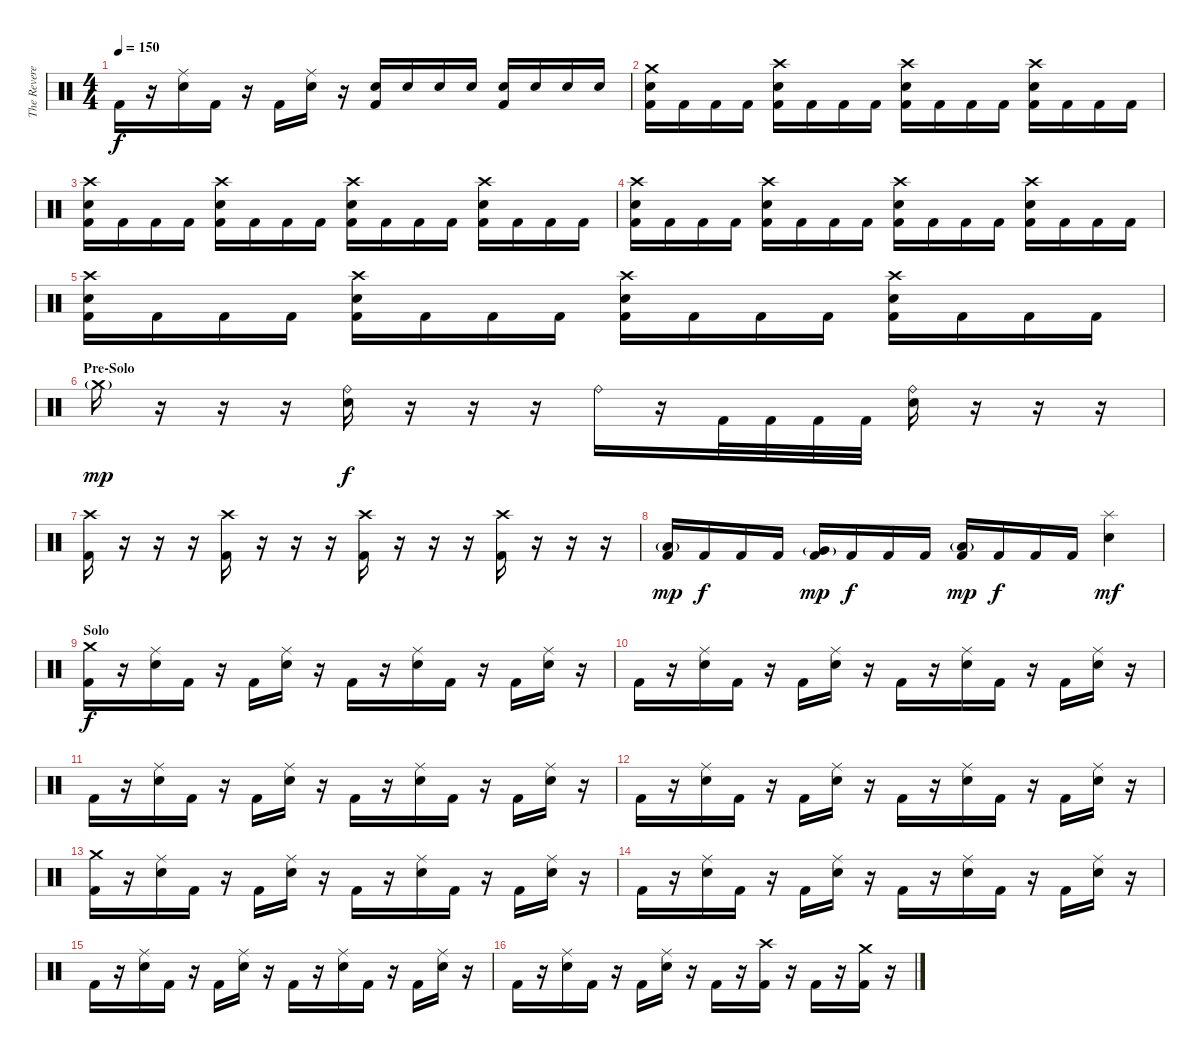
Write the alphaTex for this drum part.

\track ("The Reverend" "The Revere") {instrument percussion}
\staff {score}
\articulation defaults
\ts (4 4)
\tempo 150
\clef neutral
\ks c "Kick (hit) 2".16{dy f}
r.16 ("Ride (middle)" "Electric Snare (hit)").16 "Kick (hit) 2".16 r.16 "Kick (hit) 2".16 ("Ride (middle)" "Electric Snare (hit)").16 r.16 ("Electric Snare (hit)" "Kick (hit) 2").16 "Electric Snare (hit)".16 "Electric Snare (hit)".16 "Electric Snare (hit)".16 ("Electric Snare (hit)" "Kick (hit) 2").16 "Electric Snare (hit)".16 "Electric Snare (hit)".16 "Electric Snare (hit)".16 |
("Crash medium (hit)" "Electric Snare (hit)" "Kick (hit) 2").16 "Kick (hit) 2".16 "Kick (hit) 2".16 "Kick (hit) 2".16 ("Crash high (hit)" "Electric Snare (hit)" "Kick (hit) 2").16 "Kick (hit) 2".16 "Kick (hit) 2".16 "Kick (hit) 2".16 ("Crash high (hit)" "Electric Snare (hit)" "Kick (hit) 2").16 "Kick (hit) 2".16 "Kick (hit) 2".16 "Kick (hit) 2".16 ("Crash high (hit)" "Electric Snare (hit)" "Kick (hit) 2").16 "Kick (hit) 2".16 "Kick (hit) 2".16 "Kick (hit) 2".16 |
("Crash high (hit)" "Electric Snare (hit)" "Kick (hit) 2").16 "Kick (hit) 2".16 "Kick (hit) 2".16 "Kick (hit) 2".16 ("Crash high (hit)" "Electric Snare (hit)" "Kick (hit) 2").16 "Kick (hit) 2".16 "Kick (hit) 2".16 "Kick (hit) 2".16 ("Crash high (hit)" "Electric Snare (hit)" "Kick (hit) 2").16 "Kick (hit) 2".16 "Kick (hit) 2".16 "Kick (hit) 2".16 ("Crash high (hit)" "Electric Snare (hit)" "Kick (hit) 2").16 "Kick (hit) 2".16 "Kick (hit) 2".16 "Kick (hit) 2".16 |
("Crash high (hit)" "Electric Snare (hit)" "Kick (hit) 2").16 "Kick (hit) 2".16 "Kick (hit) 2".16 "Kick (hit) 2".16 ("Crash high (hit)" "Electric Snare (hit)" "Kick (hit) 2").16 "Kick (hit) 2".16 "Kick (hit) 2".16 "Kick (hit) 2".16 ("Crash high (hit)" "Electric Snare (hit)" "Kick (hit) 2").16 "Kick (hit) 2".16 "Kick (hit) 2".16 "Kick (hit) 2".16 ("Crash high (hit)" "Electric Snare (hit)" "Kick (hit) 2").16 "Kick (hit) 2".16 "Kick (hit) 2".16 "Kick (hit) 2".16 |
("Crash high (hit)" "Electric Snare (hit)" "Kick (hit) 2").16 "Kick (hit) 2".16 "Kick (hit) 2".16 "Kick (hit) 2".16 ("Crash high (hit)" "Electric Snare (hit)" "Kick (hit) 2").16 "Kick (hit) 2".16 "Kick (hit) 2".16 "Kick (hit) 2".16 ("Crash high (hit)" "Electric Snare (hit)" "Kick (hit) 2").16 "Kick (hit) 2".16 "Kick (hit) 2".16 "Kick (hit) 2".16 ("Crash high (hit)" "Electric Snare (hit)" "Kick (hit) 2").16 "Kick (hit) 2".16 "Kick (hit) 2".16 "Kick (hit) 2".16 |
\section ("" "Pre-Solo")
"Crash medium (hit)"{g}.16{dy mp} r.16 r.16 r.16 ("Ride (bell)" "Electric Snare (hit)").16{dy f} r.16 r.16 r.16 "Ride (bell)".16 r.16 "Kick (hit) 2".32 "Kick (hit) 2".32 "Kick (hit) 2".32 "Kick (hit) 2".32 ("Ride (bell)" "Electric Snare (hit)").16 r.16 r.16 r.16 |
("Crash high (hit)" "Kick (hit) 2").16 r.16 r.16 r.16 ("Crash high (hit)" "Kick (hit) 2").16 r.16 r.16 r.16 ("Crash high (hit)" "Kick (hit) 2").16 r.16 r.16 r.16 ("Crash high (hit)" "Kick (hit) 2").16 r.16 r.16 r.16 |
("Low Floor Tom (hit)"{g} "Kick (hit) 2").16{dy mp} "Kick (hit) 2".16{dy f} "Kick (hit) 2".16 "Kick (hit) 2".16 ("Very Low Tom (hit)"{g} "Kick (hit) 2").16{dy mp} "Kick (hit) 2".16{dy f} "Kick (hit) 2".16 "Kick (hit) 2".16 ("Low Tom (hit)"{g} "Kick (hit) 2").16{dy mp} "Kick (hit) 2".16{dy f} "Kick (hit) 2".16 "Kick (hit) 2".16 ("Splash (hit)" "Electric Snare (hit)").4{dy mf} |
\section ("" "Solo")
("Crash medium (hit)" "Kick (hit) 2").16{dy f} r.16 ("Ride (middle)" "Electric Snare (hit)").16 "Kick (hit) 2".16 r.16 "Kick (hit) 2".16 ("Ride (middle)" "Electric Snare (hit)").16 r.16 "Kick (hit) 2".16 r.16 ("Ride (middle)" "Electric Snare (hit)").16 "Kick (hit) 2".16 r.16 "Kick (hit) 2".16 ("Ride (middle)" "Electric Snare (hit)").16 r.16 |
"Kick (hit) 2".16 r.16 ("Ride (middle)" "Electric Snare (hit)").16 "Kick (hit) 2".16 r.16 "Kick (hit) 2".16 ("Ride (middle)" "Electric Snare (hit)").16 r.16 "Kick (hit) 2".16 r.16 ("Ride (middle)" "Electric Snare (hit)").16 "Kick (hit) 2".16 r.16 "Kick (hit) 2".16 ("Ride (middle)" "Electric Snare (hit)").16 r.16 |
"Kick (hit) 2".16 r.16 ("Ride (middle)" "Electric Snare (hit)").16 "Kick (hit) 2".16 r.16 "Kick (hit) 2".16 ("Ride (middle)" "Electric Snare (hit)").16 r.16 "Kick (hit) 2".16 r.16 ("Ride (middle)" "Electric Snare (hit)").16 "Kick (hit) 2".16 r.16 "Kick (hit) 2".16 ("Ride (middle)" "Electric Snare (hit)").16 r.16 |
"Kick (hit) 2".16 r.16 ("Ride (middle)" "Electric Snare (hit)").16 "Kick (hit) 2".16 r.16 "Kick (hit) 2".16 ("Ride (middle)" "Electric Snare (hit)").16 r.16 "Kick (hit) 2".16 r.16 ("Ride (middle)" "Electric Snare (hit)").16 "Kick (hit) 2".16 r.16 "Kick (hit) 2".16 ("Ride (middle)" "Electric Snare (hit)").16 r.16 |
("Crash medium (hit)" "Kick (hit) 2").16 r.16 ("Ride (middle)" "Electric Snare (hit)").16 "Kick (hit) 2".16 r.16 "Kick (hit) 2".16 ("Ride (middle)" "Electric Snare (hit)").16 r.16 "Kick (hit) 2".16 r.16 ("Ride (middle)" "Electric Snare (hit)").16 "Kick (hit) 2".16 r.16 "Kick (hit) 2".16 ("Ride (middle)" "Electric Snare (hit)").16 r.16 |
"Kick (hit) 2".16 r.16 ("Ride (middle)" "Electric Snare (hit)").16 "Kick (hit) 2".16 r.16 "Kick (hit) 2".16 ("Ride (middle)" "Electric Snare (hit)").16 r.16 "Kick (hit) 2".16 r.16 ("Ride (middle)" "Electric Snare (hit)").16 "Kick (hit) 2".16 r.16 "Kick (hit) 2".16 ("Ride (middle)" "Electric Snare (hit)").16 r.16 |
"Kick (hit) 2".16 r.16 ("Ride (middle)" "Electric Snare (hit)").16 "Kick (hit) 2".16 r.16 "Kick (hit) 2".16 ("Ride (middle)" "Electric Snare (hit)").16 r.16 "Kick (hit) 2".16 r.16 ("Ride (middle)" "Electric Snare (hit)").16 "Kick (hit) 2".16 r.16 "Kick (hit) 2".16 ("Ride (middle)" "Electric Snare (hit)").16 r.16 |
"Kick (hit) 2".16 r.16 ("Ride (middle)" "Electric Snare (hit)").16 "Kick (hit) 2".16 r.16 "Kick (hit) 2".16 ("Ride (middle)" "Electric Snare (hit)").16 r.16 "Kick (hit) 2".16 r.16 ("Crash high (hit)" "Kick (hit) 2").16 r.16 "Kick (hit) 2".16 r.16 ("Crash medium (hit)" "Kick (hit) 2").16 r.16
